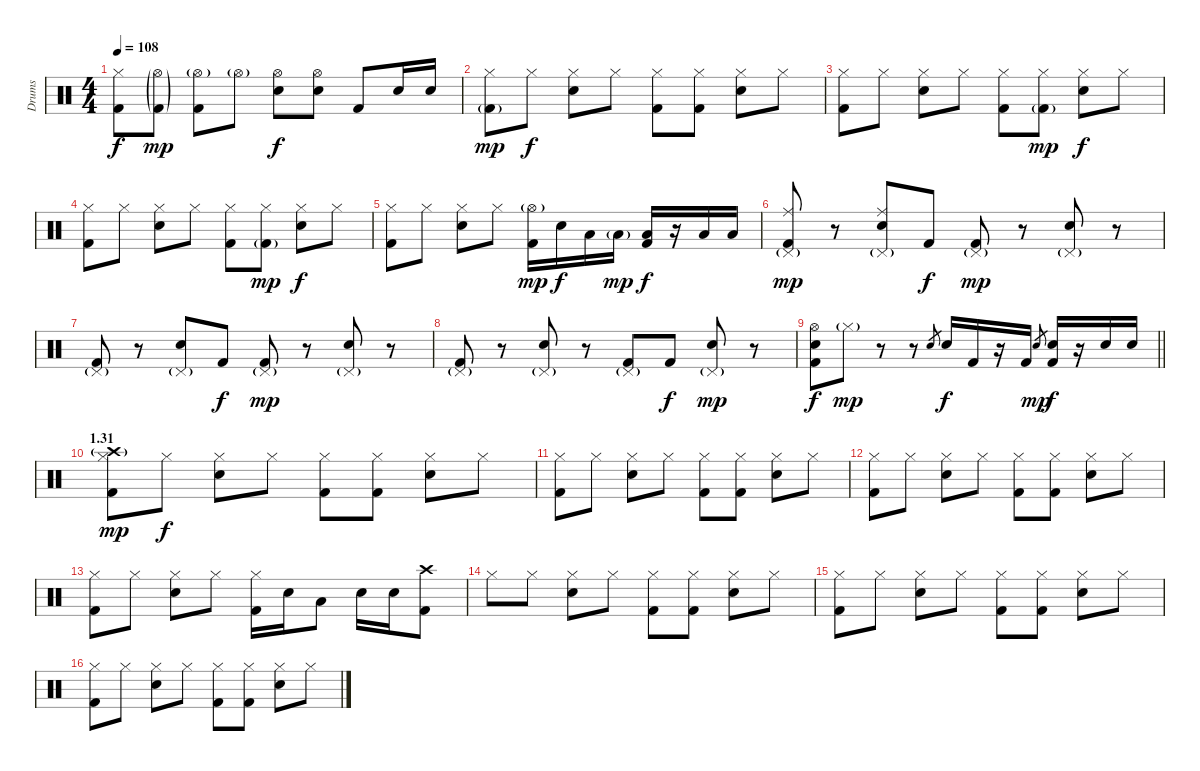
\track ("Drums" "Drums") {instrument percussion}
\staff {score}
\articulation defaults
\ts (4 4)
\tempo 108
\clef neutral
\ks c
("Hi-Hat (closed)" "Kick (hit) 2").8{dy f} ("Hi-Hat (open)"{g} "Kick (hit) 2"{g}).8{dy mp} ("Hi-Hat (open)"{g} "Kick (hit) 2").8 "Hi-Hat (open)"{g}.8 ("Hi-Hat (open)" "Electric Snare (hit)").8{dy f} ("Hi-Hat (open)" "Electric Snare (hit)").8 "Kick (hit) 2".8 "Electric Snare (hit)".16 "Electric Snare (hit)".16 |
("Hi-Hat (closed)" "Kick (hit) 2"{g}).8{dy mp} "Hi-Hat (closed)".8{dy f} ("Hi-Hat (closed)" "Electric Snare (hit)").8 "Hi-Hat (closed)".8 ("Hi-Hat (closed)" "Kick (hit) 2").8 ("Hi-Hat (closed)" "Kick (hit) 2").8 ("Hi-Hat (closed)" "Electric Snare (hit)").8 "Hi-Hat (closed)".8 |
("Hi-Hat (closed)" "Kick (hit) 2").8 "Hi-Hat (closed)".8 ("Hi-Hat (closed)" "Electric Snare (hit)").8 "Hi-Hat (closed)".8 ("Hi-Hat (closed)" "Kick (hit) 2").8 ("Hi-Hat (closed)" "Kick (hit) 2"{g}).8{dy mp} ("Hi-Hat (closed)" "Electric Snare (hit)").8{dy f} "Hi-Hat (closed)".8 |
("Hi-Hat (closed)" "Kick (hit) 2").8 "Hi-Hat (closed)".8 ("Hi-Hat (closed)" "Electric Snare (hit)").8 "Hi-Hat (closed)".8 ("Hi-Hat (closed)" "Kick (hit) 2").8 ("Hi-Hat (closed)" "Kick (hit) 2"{g}).8{dy mp} ("Hi-Hat (closed)" "Electric Snare (hit)").8{dy f} "Hi-Hat (closed)".8 |
("Hi-Hat (closed)" "Kick (hit) 2").8 "Hi-Hat (closed)".8 ("Hi-Hat (closed)" "Electric Snare (hit)").8 "Hi-Hat (closed)".8 ("Hi-Hat (open)"{g} "Kick (hit) 2").16{dy mp} "Electric Snare (hit)".16{dy f} "Low Tom (hit)".16 "Low Tom (hit)"{g}.16{dy mp} ("Low Tom (hit)" "Kick (hit) 2").16{dy f} r.16 "Low Tom (hit)".16 "Low Tom (hit)".16 |
("Ride (middle)" "Pedal Hi-Hat (hit)"{g} "Kick (hit) 2").8{dy mp} r.8 ("Ride (middle)" "Pedal Hi-Hat (hit)"{g} "Electric Snare (hit)").8 "Kick (hit) 2".8{dy f} ("Pedal Hi-Hat (hit)"{g} "Kick (hit) 2").8{dy mp} r.8 ("Pedal Hi-Hat (hit)"{g} "Electric Snare (hit)").8 r.8 |
("Pedal Hi-Hat (hit)"{g} "Kick (hit) 2").8 r.8 ("Pedal Hi-Hat (hit)"{g} "Electric Snare (hit)").8 "Kick (hit) 2".8{dy f} ("Pedal Hi-Hat (hit)"{g} "Kick (hit) 2").8{dy mp} r.8 ("Pedal Hi-Hat (hit)"{g} "Electric Snare (hit)").8 r.8 |
("Pedal Hi-Hat (hit)"{g} "Kick (hit) 2").8 r.8 ("Pedal Hi-Hat (hit)"{g} "Electric Snare (hit)").8 r.8 ("Pedal Hi-Hat (hit)"{g} "Kick (hit) 2").8 "Kick (hit) 2".8{dy f} ("Pedal Hi-Hat (hit)"{g} "Electric Snare (hit)").8{dy mp} r.8 |
\barLineRight lightlight
("Hi-Hat (open)" "Electric Snare (hit)" "Kick (hit) 2").8{dy f} "Hi-Hat (closed)"{g}.8{dy mp} r.8 r.8 "Electric Snare (hit)".8{gr} "Electric Snare (hit)".16{dy f} "Kick (hit) 2".16 r.16 "Kick (hit) 2".16 "Electric Snare (hit)".8{gr dy mp} ("Electric Snare (hit)" "Kick (hit) 2").16{dy f} r.16 "Electric Snare (hit)".16 "Electric Snare (hit)".16 |
\section ("" "1.31")
("Crash high (hit)"{g} "Hi-Hat (closed)" "Kick (hit) 2").8{dy mp} "Hi-Hat (closed)".8{dy f} ("Hi-Hat (closed)" "Electric Snare (hit)").8 "Hi-Hat (closed)".8 ("Hi-Hat (closed)" "Kick (hit) 2").8 ("Hi-Hat (closed)" "Kick (hit) 2").8 ("Hi-Hat (closed)" "Electric Snare (hit)").8 "Hi-Hat (closed)".8 |
("Hi-Hat (closed)" "Kick (hit) 2").8 "Hi-Hat (closed)".8 ("Hi-Hat (closed)" "Electric Snare (hit)").8 "Hi-Hat (closed)".8 ("Hi-Hat (closed)" "Kick (hit) 2").8 ("Hi-Hat (closed)" "Kick (hit) 2").8 ("Hi-Hat (closed)" "Electric Snare (hit)").8 "Hi-Hat (closed)".8 |
("Hi-Hat (closed)" "Kick (hit) 2").8 "Hi-Hat (closed)".8 ("Hi-Hat (closed)" "Electric Snare (hit)").8 "Hi-Hat (closed)".8 ("Hi-Hat (closed)" "Kick (hit) 2").8 ("Hi-Hat (closed)" "Kick (hit) 2").8 ("Hi-Hat (closed)" "Electric Snare (hit)").8 "Hi-Hat (closed)".8 |
("Hi-Hat (closed)" "Kick (hit) 2").8 "Hi-Hat (closed)".8 ("Hi-Hat (closed)" "Electric Snare (hit)").8 "Hi-Hat (closed)".8 ("Hi-Hat (closed)" "Kick (hit) 2").16 "Electric Snare (hit)".16 "Low Tom (hit)".8 "Electric Snare (hit)".16 "Electric Snare (hit)".16 ("Crash high (hit)" "Kick (hit) 2").8 |
"Hi-Hat (closed)".8 "Hi-Hat (closed)".8 ("Hi-Hat (closed)" "Electric Snare (hit)").8 "Hi-Hat (closed)".8 ("Hi-Hat (closed)" "Kick (hit) 2").8 ("Hi-Hat (closed)" "Kick (hit) 2").8 ("Hi-Hat (closed)" "Electric Snare (hit)").8 "Hi-Hat (closed)".8 |
("Hi-Hat (closed)" "Kick (hit) 2").8 "Hi-Hat (closed)".8 ("Hi-Hat (closed)" "Electric Snare (hit)").8 "Hi-Hat (closed)".8 ("Hi-Hat (closed)" "Kick (hit) 2").8 ("Hi-Hat (closed)" "Kick (hit) 2").8 ("Hi-Hat (closed)" "Electric Snare (hit)").8 "Hi-Hat (closed)".8 |
("Hi-Hat (closed)" "Kick (hit) 2").8 "Hi-Hat (closed)".8 ("Hi-Hat (closed)" "Electric Snare (hit)").8 "Hi-Hat (closed)".8 ("Hi-Hat (closed)" "Kick (hit) 2").8 ("Hi-Hat (closed)" "Kick (hit) 2").8 ("Hi-Hat (closed)" "Electric Snare (hit)").8 "Hi-Hat (closed)".8
